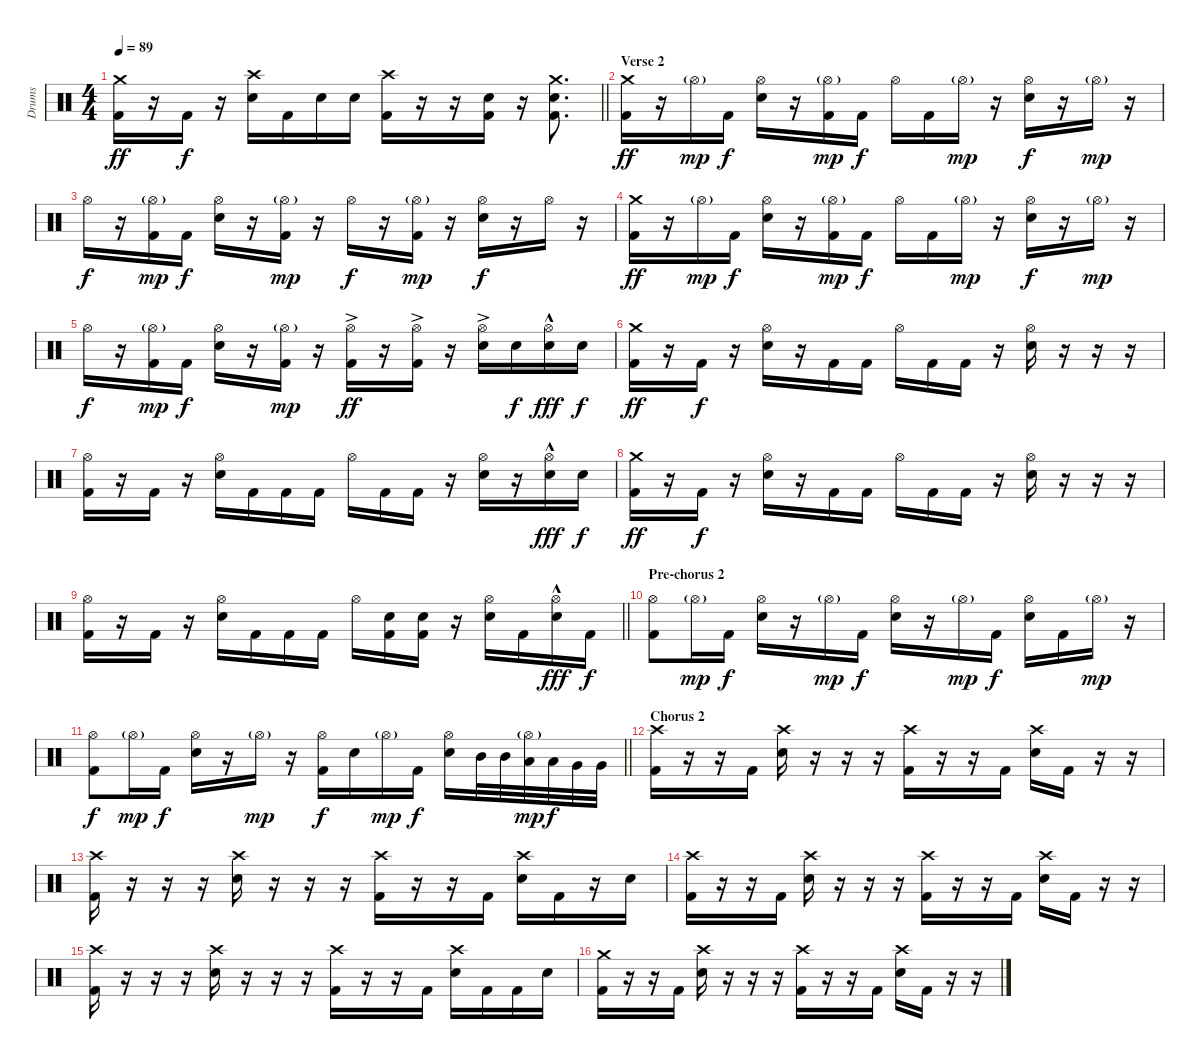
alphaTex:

\track ("Drums" "Drums") {instrument percussion}
\staff {score}
\articulation defaults
\ts (4 4)
\tempo 89
\clef neutral
\barLineRight lightlight
\ks c
("Crash medium (hit)" "Kick (hit) 2").16{dy ff} r.16 "Kick (hit) 2".16{dy f} r.16 ("Crash high (hit)" "Electric Snare (hit)").16 "Kick (hit) 2".16 "Electric Snare (hit)".16 "Electric Snare (hit)".16 ("Crash high (hit)" "Kick (hit) 2").16 r.16 r.16 ("Electric Snare (hit)" "Kick (hit) 2").16 r.16 ("Crash medium (hit)" "Electric Snare (hit)" "Kick (hit) 2").8{d} |
\section ("" "Verse 2")
("Crash medium (hit)" "Kick (hit) 2").16{dy ff} r.16 "Hi-Hat (open)"{g}.16{dy mp} "Kick (hit) 2".16{dy f} ("Hi-Hat (open)" "Electric Snare (hit)").16 r.16 ("Hi-Hat (open)"{g} "Kick (hit) 2").16{dy mp} "Kick (hit) 2".16{dy f} "Hi-Hat (open)".16 "Kick (hit) 2".16 "Hi-Hat (open)"{g}.16{dy mp} r.16 ("Hi-Hat (open)" "Electric Snare (hit)").16{dy f} r.16 "Hi-Hat (open)"{g}.16{dy mp} r.16 |
"Hi-Hat (open)".16{dy f} r.16 ("Hi-Hat (open)"{g} "Kick (hit) 2").16{dy mp} "Kick (hit) 2".16{dy f} ("Hi-Hat (open)" "Electric Snare (hit)").16 r.16 ("Hi-Hat (open)"{g} "Kick (hit) 2").16{dy mp} r.16 "Hi-Hat (open)".16{dy f} r.16 ("Hi-Hat (open)"{g} "Kick (hit) 2").16{dy mp} r.16 ("Hi-Hat (open)" "Electric Snare (hit)").16{dy f} r.16 "Hi-Hat (open)".16 r.16 |
("Crash medium (hit)" "Kick (hit) 2").16{dy ff} r.16 "Hi-Hat (open)"{g}.16{dy mp} "Kick (hit) 2".16{dy f} ("Hi-Hat (open)" "Electric Snare (hit)").16 r.16 ("Hi-Hat (open)"{g} "Kick (hit) 2").16{dy mp} "Kick (hit) 2".16{dy f} "Hi-Hat (open)".16 "Kick (hit) 2".16 "Hi-Hat (open)"{g}.16{dy mp} r.16 ("Hi-Hat (open)" "Electric Snare (hit)").16{dy f} r.16 "Hi-Hat (open)"{g}.16{dy mp} r.16 |
"Hi-Hat (open)".16{dy f} r.16 ("Hi-Hat (open)"{g} "Kick (hit) 2").16{dy mp} "Kick (hit) 2".16{dy f} ("Hi-Hat (open)" "Electric Snare (hit)").16 r.16 ("Hi-Hat (open)"{g} "Kick (hit) 2").16{dy mp} r.16 ("Hi-Hat (open)"{ac} "Kick (hit) 2").16{dy ff} r.16 ("Hi-Hat (open)"{ac} "Kick (hit) 2").16 r.16 ("Hi-Hat (open)"{ac} "Electric Snare (hit)").16 "Electric Snare (hit)".16{dy f} ("Hi-Hat (open)"{hac} "Electric Snare (hit)").16{dy fff} "Electric Snare (hit)".16{dy f} |
("Crash medium (hit)" "Kick (hit) 2").16{dy ff} r.16 "Kick (hit) 2".16{dy f} r.16 ("Hi-Hat (open)" "Electric Snare (hit)").16 r.16 "Kick (hit) 2".16 "Kick (hit) 2".16 "Hi-Hat (open)".16 "Kick (hit) 2".16 "Kick (hit) 2".16 r.16 ("Hi-Hat (open)" "Electric Snare (hit)").16 r.16 r.16 r.16 |
("Hi-Hat (open)" "Kick (hit) 2").16 r.16 "Kick (hit) 2".16 r.16 ("Hi-Hat (open)" "Electric Snare (hit)").16 "Kick (hit) 2".16 "Kick (hit) 2".16 "Kick (hit) 2".16 "Hi-Hat (open)".16 "Kick (hit) 2".16 "Kick (hit) 2".16 r.16 ("Hi-Hat (open)" "Electric Snare (hit)").16 r.16 ("Hi-Hat (open)"{hac} "Electric Snare (hit)").16{dy fff} "Electric Snare (hit)".16{dy f} |
("Crash medium (hit)" "Kick (hit) 2").16{dy ff} r.16 "Kick (hit) 2".16{dy f} r.16 ("Hi-Hat (open)" "Electric Snare (hit)").16 r.16 "Kick (hit) 2".16 "Kick (hit) 2".16 "Hi-Hat (open)".16 "Kick (hit) 2".16 "Kick (hit) 2".16 r.16 ("Hi-Hat (open)" "Electric Snare (hit)").16 r.16 r.16 r.16 |
\barLineRight lightlight
("Hi-Hat (open)" "Kick (hit) 2").16 r.16 "Kick (hit) 2".16 r.16 ("Hi-Hat (open)" "Electric Snare (hit)").16 "Kick (hit) 2".16 "Kick (hit) 2".16 "Kick (hit) 2".16 "Hi-Hat (open)".16 ("Electric Snare (hit)" "Kick (hit) 2").16 ("Electric Snare (hit)" "Kick (hit) 2").16 r.16 ("Hi-Hat (open)" "Electric Snare (hit)").16 "Kick (hit) 2".16 ("Hi-Hat (open)"{hac} "Electric Snare (hit)").16{dy fff} "Kick (hit) 2".16{dy f} |
\section ("" "Pre-chorus 2")
("Hi-Hat (open)" "Kick (hit) 2").8 "Hi-Hat (open)"{g}.16{dy mp} "Kick (hit) 2".16{dy f} ("Hi-Hat (open)" "Electric Snare (hit)").16 r.16 "Hi-Hat (open)"{g}.16{dy mp} "Kick (hit) 2".16{dy f} ("Hi-Hat (open)" "Electric Snare (hit)").16 r.16 "Hi-Hat (open)"{g}.16{dy mp} "Kick (hit) 2".16{dy f} ("Hi-Hat (open)" "Electric Snare (hit)").16 "Kick (hit) 2".16 "Hi-Hat (open)"{g}.16{dy mp} r.16 |
\barLineRight lightlight
("Hi-Hat (open)" "Kick (hit) 2").8{dy f} "Hi-Hat (open)"{g}.16{dy mp} "Kick (hit) 2".16{dy f} ("Hi-Hat (open)" "Electric Snare (hit)").16 r.16 "Hi-Hat (open)"{g}.16{dy mp} r.16 ("Hi-Hat (open)" "Kick (hit) 2").16{dy f} "Electric Snare (hit)".16 "Hi-Hat (open)"{g}.16{dy mp} "Kick (hit) 2".16{dy f} ("Hi-Hat (open)" "Electric Snare (hit)").16 "Mid Tom (hit)".32 "Mid Tom (hit)".32 ("Hi-Hat (open)"{g} "Low Tom (hit)").32{dy mp} "Low Tom (hit)".32{dy f} "Very Low Tom (hit)".32 "Very Low Tom (hit)".32 |
\section ("" "Chorus 2")
("Crash high (hit)" "Kick (hit) 2").16 r.16 r.16 "Kick (hit) 2".16 ("Crash high (hit)" "Electric Snare (hit)").16 r.16 r.16 r.16 ("Crash high (hit)" "Kick (hit) 2").16 r.16 r.16 "Kick (hit) 2".16 ("Crash high (hit)" "Electric Snare (hit)").16 "Kick (hit) 2".16 r.16 r.16 |
("Crash high (hit)" "Kick (hit) 2").16 r.16 r.16 r.16 ("Crash high (hit)" "Electric Snare (hit)").16 r.16 r.16 r.16 ("Crash high (hit)" "Kick (hit) 2").16 r.16 r.16 "Kick (hit) 2".16 ("Crash high (hit)" "Electric Snare (hit)").16 "Kick (hit) 2".16 r.16 "Electric Snare (hit)".16 |
("Crash high (hit)" "Kick (hit) 2").16 r.16 r.16 "Kick (hit) 2".16 ("Crash high (hit)" "Electric Snare (hit)").16 r.16 r.16 r.16 ("Crash high (hit)" "Kick (hit) 2").16 r.16 r.16 "Kick (hit) 2".16 ("Crash high (hit)" "Electric Snare (hit)").16 "Kick (hit) 2".16 r.16 r.16 |
("Crash high (hit)" "Kick (hit) 2").16 r.16 r.16 r.16 ("Crash high (hit)" "Electric Snare (hit)").16 r.16 r.16 r.16 ("Crash high (hit)" "Kick (hit) 2").16 r.16 r.16 "Kick (hit) 2".16 ("Crash high (hit)" "Electric Snare (hit)").16 "Kick (hit) 2".16 "Kick (hit) 2".16 "Electric Snare (hit)".16 |
("Crash medium (hit)" "Kick (hit) 2").16 r.16 r.16 "Kick (hit) 2".16 ("Crash high (hit)" "Electric Snare (hit)").16 r.16 r.16 r.16 ("Crash high (hit)" "Kick (hit) 2").16 r.16 r.16 "Kick (hit) 2".16 ("Crash high (hit)" "Electric Snare (hit)").16 "Kick (hit) 2".16 r.16 r.16
